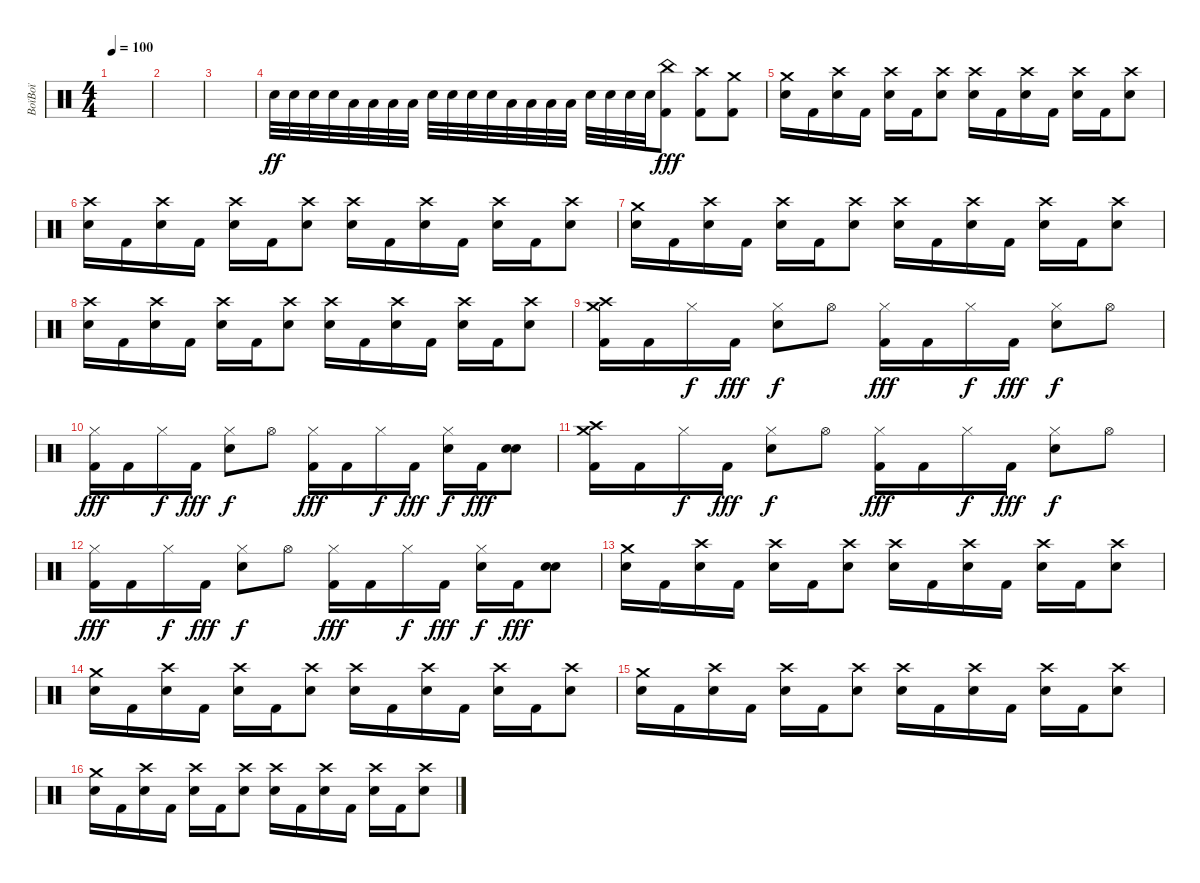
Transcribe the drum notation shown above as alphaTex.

\track ("BoïBoï" "BoïBoï") {instrument percussion}
\staff {score}
\articulation defaults
\ts (4 4)
\tempo 100
\clef neutral
\ks c
|
|
|
"Electric Snare (hit)".32{dy ff} "Electric Snare (hit)".32 "Electric Snare (hit)".32 "Electric Snare (hit)".32 "Low Tom (hit)".32 "Low Tom (hit)".32 "Low Tom (hit)".32 "Low Tom (hit)".32 "Electric Snare (hit)".32 "Electric Snare (hit)".32 "Electric Snare (hit)".32 "Electric Snare (hit)".32 "Low Tom (hit)".32 "Low Tom (hit)".32 "Low Tom (hit)".32 "Low Tom (hit)".32 "Electric Snare (hit)".32 "Electric Snare (hit)".32 "Electric Snare (hit)".32 "Electric Snare (hit)".32 ("China (hit)" "Kick (hit) 2").8{dy fff} ("Crash high (hit)" "Kick (hit) 2").8 ("Crash medium (hit)" "Kick (hit) 2").8 |
("Crash medium (hit)" "Electric Snare (hit)").16 "Kick (hit) 2".16 ("Crash high (hit)" "Electric Snare (hit)").16 "Kick (hit) 2".16 ("Crash high (hit)" "Electric Snare (hit)").16 "Kick (hit) 2".16 ("Crash high (hit)" "Electric Snare (hit)").8 ("Crash high (hit)" "Electric Snare (hit)").16 "Kick (hit) 2".16 ("Crash high (hit)" "Electric Snare (hit)").16 "Kick (hit) 2".16 ("Crash high (hit)" "Electric Snare (hit)").16 "Kick (hit) 2".16 ("Crash high (hit)" "Electric Snare (hit)").8 |
("Crash high (hit)" "Electric Snare (hit)").16 "Kick (hit) 2".16 ("Crash high (hit)" "Electric Snare (hit)").16 "Kick (hit) 2".16 ("Crash high (hit)" "Electric Snare (hit)").16 "Kick (hit) 2".16 ("Crash high (hit)" "Electric Snare (hit)").8 ("Crash high (hit)" "Electric Snare (hit)").16 "Kick (hit) 2".16 ("Crash high (hit)" "Electric Snare (hit)").16 "Kick (hit) 2".16 ("Crash high (hit)" "Electric Snare (hit)").16 "Kick (hit) 2".16 ("Crash high (hit)" "Electric Snare (hit)").8 |
("Crash medium (hit)" "Electric Snare (hit)").16 "Kick (hit) 2".16 ("Crash high (hit)" "Electric Snare (hit)").16 "Kick (hit) 2".16 ("Crash high (hit)" "Electric Snare (hit)").16 "Kick (hit) 2".16 ("Crash high (hit)" "Electric Snare (hit)").8 ("Crash high (hit)" "Electric Snare (hit)").16 "Kick (hit) 2".16 ("Crash high (hit)" "Electric Snare (hit)").16 "Kick (hit) 2".16 ("Crash high (hit)" "Electric Snare (hit)").16 "Kick (hit) 2".16 ("Crash high (hit)" "Electric Snare (hit)").8 |
("Crash high (hit)" "Electric Snare (hit)").16 "Kick (hit) 2".16 ("Crash high (hit)" "Electric Snare (hit)").16 "Kick (hit) 2".16 ("Crash high (hit)" "Electric Snare (hit)").16 "Kick (hit) 2".16 ("Crash high (hit)" "Electric Snare (hit)").8 ("Crash high (hit)" "Electric Snare (hit)").16 "Kick (hit) 2".16 ("Crash high (hit)" "Electric Snare (hit)").16 "Kick (hit) 2".16 ("Crash high (hit)" "Electric Snare (hit)").16 "Kick (hit) 2".16 ("Crash high (hit)" "Electric Snare (hit)").8 |
("Crash medium (hit)" "Crash high (hit)" "Kick (hit) 2").16 "Kick (hit) 2".16 "Hi-Hat (closed)".16{dy f} "Kick (hit) 2".16{dy fff} ("Hi-Hat (closed)" "Electric Snare (hit)").8{dy f} "Hi-Hat (open)".8 ("Hi-Hat (closed)" "Kick (hit) 2").16{dy fff} "Kick (hit) 2".16 "Hi-Hat (closed)".16{dy f} "Kick (hit) 2".16{dy fff} ("Hi-Hat (closed)" "Electric Snare (hit)").8{dy f} "Hi-Hat (open)".8 |
("Hi-Hat (closed)" "Kick (hit) 2").16{dy fff} "Kick (hit) 2".16 "Hi-Hat (closed)".16{dy f} "Kick (hit) 2".16{dy fff} ("Hi-Hat (closed)" "Electric Snare (hit)").8{dy f} "Hi-Hat (open)".8 ("Hi-Hat (closed)" "Kick (hit) 2").16{dy fff} "Kick (hit) 2".16 "Hi-Hat (closed)".16{dy f} "Kick (hit) 2".16{dy fff} ("Hi-Hat (closed)" "Electric Snare (hit)").16{dy f} "Kick (hit) 2".16{dy fff} ("Electric Snare (hit)" "Snare (hit) 2").8 |
("Crash medium (hit)" "Crash high (hit)" "Kick (hit) 2").16 "Kick (hit) 2".16 "Hi-Hat (closed)".16{dy f} "Kick (hit) 2".16{dy fff} ("Hi-Hat (closed)" "Electric Snare (hit)").8{dy f} "Hi-Hat (open)".8 ("Hi-Hat (closed)" "Kick (hit) 2").16{dy fff} "Kick (hit) 2".16 "Hi-Hat (closed)".16{dy f} "Kick (hit) 2".16{dy fff} ("Hi-Hat (closed)" "Electric Snare (hit)").8{dy f} "Hi-Hat (open)".8 |
("Hi-Hat (closed)" "Kick (hit) 2").16{dy fff} "Kick (hit) 2".16 "Hi-Hat (closed)".16{dy f} "Kick (hit) 2".16{dy fff} ("Hi-Hat (closed)" "Electric Snare (hit)").8{dy f} "Hi-Hat (open)".8 ("Hi-Hat (closed)" "Kick (hit) 2").16{dy fff} "Kick (hit) 2".16 "Hi-Hat (closed)".16{dy f} "Kick (hit) 2".16{dy fff} ("Hi-Hat (closed)" "Electric Snare (hit)").16{dy f} "Kick (hit) 2".16{dy fff} ("Electric Snare (hit)" "Snare (hit) 2").8 |
("Crash medium (hit)" "Electric Snare (hit)").16 "Kick (hit) 2".16 ("Crash high (hit)" "Electric Snare (hit)").16 "Kick (hit) 2".16 ("Crash high (hit)" "Electric Snare (hit)").16 "Kick (hit) 2".16 ("Crash high (hit)" "Electric Snare (hit)").8 ("Crash high (hit)" "Electric Snare (hit)").16 "Kick (hit) 2".16 ("Crash high (hit)" "Electric Snare (hit)").16 "Kick (hit) 2".16 ("Crash high (hit)" "Electric Snare (hit)").16 "Kick (hit) 2".16 ("Crash high (hit)" "Electric Snare (hit)").8 |
("Crash medium (hit)" "Electric Snare (hit)").16 "Kick (hit) 2".16 ("Crash high (hit)" "Electric Snare (hit)").16 "Kick (hit) 2".16 ("Crash high (hit)" "Electric Snare (hit)").16 "Kick (hit) 2".16 ("Crash high (hit)" "Electric Snare (hit)").8 ("Crash high (hit)" "Electric Snare (hit)").16 "Kick (hit) 2".16 ("Crash high (hit)" "Electric Snare (hit)").16 "Kick (hit) 2".16 ("Crash high (hit)" "Electric Snare (hit)").16 "Kick (hit) 2".16 ("Crash high (hit)" "Electric Snare (hit)").8 |
("Crash medium (hit)" "Electric Snare (hit)").16 "Kick (hit) 2".16 ("Crash high (hit)" "Electric Snare (hit)").16 "Kick (hit) 2".16 ("Crash high (hit)" "Electric Snare (hit)").16 "Kick (hit) 2".16 ("Crash high (hit)" "Electric Snare (hit)").8 ("Crash high (hit)" "Electric Snare (hit)").16 "Kick (hit) 2".16 ("Crash high (hit)" "Electric Snare (hit)").16 "Kick (hit) 2".16 ("Crash high (hit)" "Electric Snare (hit)").16 "Kick (hit) 2".16 ("Crash high (hit)" "Electric Snare (hit)").8 |
("Crash medium (hit)" "Electric Snare (hit)").16 "Kick (hit) 2".16 ("Crash high (hit)" "Electric Snare (hit)").16 "Kick (hit) 2".16 ("Crash high (hit)" "Electric Snare (hit)").16 "Kick (hit) 2".16 ("Crash high (hit)" "Electric Snare (hit)").8 ("Crash high (hit)" "Electric Snare (hit)").16 "Kick (hit) 2".16 ("Crash high (hit)" "Electric Snare (hit)").16 "Kick (hit) 2".16 ("Crash high (hit)" "Electric Snare (hit)").16 "Kick (hit) 2".16 ("Crash high (hit)" "Electric Snare (hit)").8
